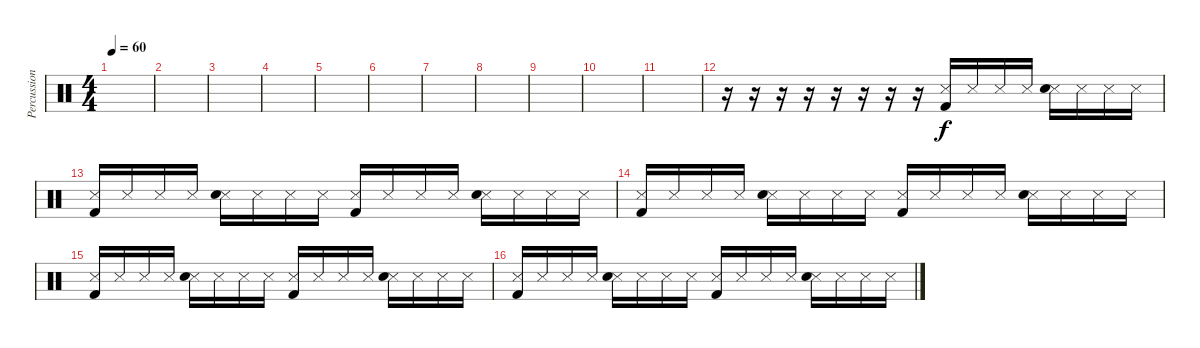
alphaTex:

\track ("Percussions" "Percussion") {instrument percussion}
\staff {score}
\articulation defaults
\ts (4 4)
\tempo 60
\clef neutral
\ks c
|
|
|
|
|
|
|
|
|
|
|
r.16 r.16 r.16 r.16 r.16 r.16 r.16 r.16 ("Snare (side stick) 3" "Kick (hit) 2").16 "Snare (side stick) 3".16 "Snare (side stick) 3".16 "Snare (side stick) 3".16 ("Snare (side stick) 3" "Electric Snare (hit)").16 "Snare (side stick) 3".16 "Snare (side stick) 3".16 "Snare (side stick) 3".16 |
("Snare (side stick) 3" "Kick (hit) 2").16 "Snare (side stick) 3".16 "Snare (side stick) 3".16 "Snare (side stick) 3".16 ("Snare (side stick) 3" "Electric Snare (hit)").16 "Snare (side stick) 3".16 "Snare (side stick) 3".16 "Snare (side stick) 3".16 ("Snare (side stick) 3" "Kick (hit) 2").16 "Snare (side stick) 3".16 "Snare (side stick) 3".16 "Snare (side stick) 3".16 ("Snare (side stick) 3" "Electric Snare (hit)").16 "Snare (side stick) 3".16 "Snare (side stick) 3".16 "Snare (side stick) 3".16 |
("Snare (side stick) 3" "Kick (hit) 2").16 "Snare (side stick) 3".16 "Snare (side stick) 3".16 "Snare (side stick) 3".16 ("Snare (side stick) 3" "Electric Snare (hit)").16 "Snare (side stick) 3".16 "Snare (side stick) 3".16 "Snare (side stick) 3".16 ("Snare (side stick) 3" "Kick (hit) 2").16 "Snare (side stick) 3".16 "Snare (side stick) 3".16 "Snare (side stick) 3".16 ("Snare (side stick) 3" "Electric Snare (hit)").16 "Snare (side stick) 3".16 "Snare (side stick) 3".16 "Snare (side stick) 3".16 |
("Snare (side stick) 3" "Kick (hit) 2").16 "Snare (side stick) 3".16 "Snare (side stick) 3".16 "Snare (side stick) 3".16 ("Snare (side stick) 3" "Electric Snare (hit)").16 "Snare (side stick) 3".16 "Snare (side stick) 3".16 "Snare (side stick) 3".16 ("Snare (side stick) 3" "Kick (hit) 2").16 "Snare (side stick) 3".16 "Snare (side stick) 3".16 "Snare (side stick) 3".16 ("Snare (side stick) 3" "Electric Snare (hit)").16 "Snare (side stick) 3".16 "Snare (side stick) 3".16 "Snare (side stick) 3".16 |
("Snare (side stick) 3" "Kick (hit) 2").16 "Snare (side stick) 3".16 "Snare (side stick) 3".16 "Snare (side stick) 3".16 ("Snare (side stick) 3" "Electric Snare (hit)").16 "Snare (side stick) 3".16 "Snare (side stick) 3".16 "Snare (side stick) 3".16 ("Snare (side stick) 3" "Kick (hit) 2").16 "Snare (side stick) 3".16 "Snare (side stick) 3".16 "Snare (side stick) 3".16 ("Snare (side stick) 3" "Electric Snare (hit)").16 "Snare (side stick) 3".16 "Snare (side stick) 3".16 "Snare (side stick) 3".16
